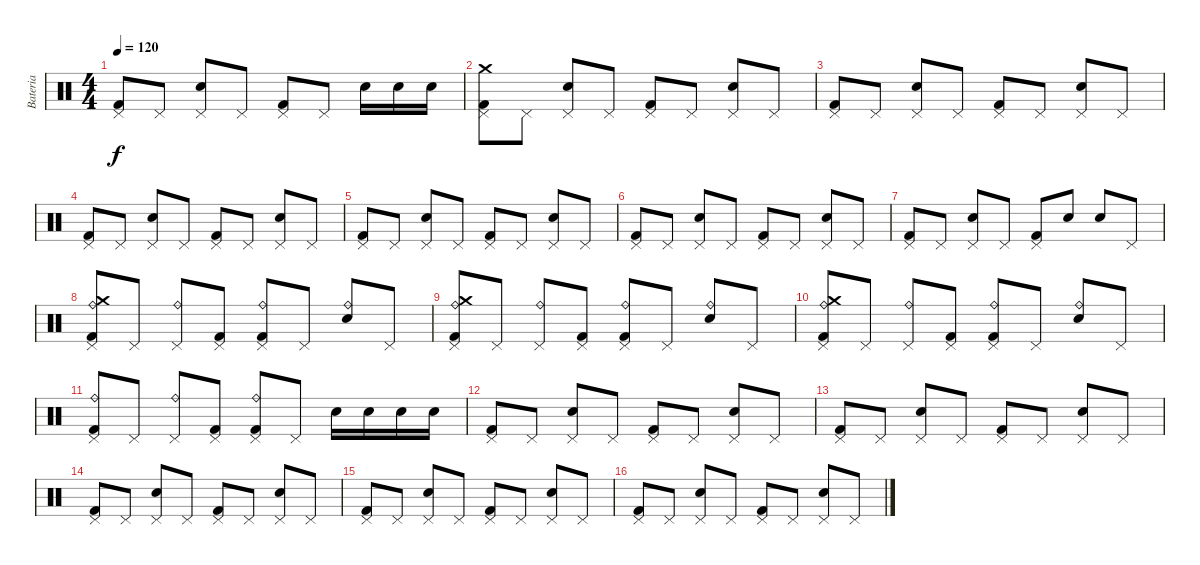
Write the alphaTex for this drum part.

\track ("Bateria" "Bateria") {instrument percussion}
\staff {score}
\articulation defaults
\ts (4 4)
\tempo 120
\clef neutral
\ks c
("Pedal Hi-Hat (hit)" "Kick (hit) 2").8{dy f} "Pedal Hi-Hat (hit)".8 ("Pedal Hi-Hat (hit)" "Electric Snare (hit)").8 "Pedal Hi-Hat (hit)".8 ("Pedal Hi-Hat (hit)" "Kick (hit) 2").8 "Pedal Hi-Hat (hit)".8 "Electric Snare (hit)".16 "Electric Snare (hit)".16 "Electric Snare (hit)".16 |
("Pedal Hi-Hat (hit)" "Kick (hit) 2" "Crash medium (hit)").8 "Pedal Hi-Hat (hit)".8 ("Pedal Hi-Hat (hit)" "Electric Snare (hit)").8 "Pedal Hi-Hat (hit)".8 ("Pedal Hi-Hat (hit)" "Kick (hit) 2").8 "Pedal Hi-Hat (hit)".8 ("Pedal Hi-Hat (hit)" "Electric Snare (hit)").8 "Pedal Hi-Hat (hit)".8 |
("Pedal Hi-Hat (hit)" "Kick (hit) 2").8 "Pedal Hi-Hat (hit)".8 ("Pedal Hi-Hat (hit)" "Electric Snare (hit)").8 "Pedal Hi-Hat (hit)".8 ("Pedal Hi-Hat (hit)" "Kick (hit) 2").8 "Pedal Hi-Hat (hit)".8 ("Pedal Hi-Hat (hit)" "Electric Snare (hit)").8 "Pedal Hi-Hat (hit)".8 |
("Pedal Hi-Hat (hit)" "Kick (hit) 2").8 "Pedal Hi-Hat (hit)".8 ("Pedal Hi-Hat (hit)" "Electric Snare (hit)").8 "Pedal Hi-Hat (hit)".8 ("Pedal Hi-Hat (hit)" "Kick (hit) 2").8 "Pedal Hi-Hat (hit)".8 ("Pedal Hi-Hat (hit)" "Electric Snare (hit)").8 "Pedal Hi-Hat (hit)".8 |
("Pedal Hi-Hat (hit)" "Kick (hit) 2").8 "Pedal Hi-Hat (hit)".8 ("Pedal Hi-Hat (hit)" "Electric Snare (hit)").8 "Pedal Hi-Hat (hit)".8 ("Pedal Hi-Hat (hit)" "Kick (hit) 2").8 "Pedal Hi-Hat (hit)".8 ("Pedal Hi-Hat (hit)" "Electric Snare (hit)").8 "Pedal Hi-Hat (hit)".8 |
("Pedal Hi-Hat (hit)" "Kick (hit) 2").8 "Pedal Hi-Hat (hit)".8 ("Pedal Hi-Hat (hit)" "Electric Snare (hit)").8 "Pedal Hi-Hat (hit)".8 ("Pedal Hi-Hat (hit)" "Kick (hit) 2").8 "Pedal Hi-Hat (hit)".8 ("Pedal Hi-Hat (hit)" "Electric Snare (hit)").8 "Pedal Hi-Hat (hit)".8 |
("Pedal Hi-Hat (hit)" "Kick (hit) 2").8 "Pedal Hi-Hat (hit)".8 ("Pedal Hi-Hat (hit)" "Electric Snare (hit)").8 "Pedal Hi-Hat (hit)".8 ("Pedal Hi-Hat (hit)" "Kick (hit) 2").8 "Electric Snare (hit)".8 "Electric Snare (hit)".8 "Pedal Hi-Hat (hit)".8 |
("Pedal Hi-Hat (hit)" "Kick (hit) 2" "Crash medium (hit)" "Ride (bell)").8 "Pedal Hi-Hat (hit)".8 ("Pedal Hi-Hat (hit)" "Ride (bell)").8 ("Pedal Hi-Hat (hit)" "Kick (hit) 2").8 ("Pedal Hi-Hat (hit)" "Kick (hit) 2" "Ride (bell)").8 "Pedal Hi-Hat (hit)".8 ("Electric Snare (hit)" "Ride (bell)").8 "Pedal Hi-Hat (hit)".8 |
("Pedal Hi-Hat (hit)" "Kick (hit) 2" "Crash medium (hit)" "Ride (bell)").8 "Pedal Hi-Hat (hit)".8 ("Pedal Hi-Hat (hit)" "Ride (bell)").8 ("Pedal Hi-Hat (hit)" "Kick (hit) 2").8 ("Pedal Hi-Hat (hit)" "Kick (hit) 2" "Ride (bell)").8 "Pedal Hi-Hat (hit)".8 ("Electric Snare (hit)" "Ride (bell)").8 "Pedal Hi-Hat (hit)".8 |
("Pedal Hi-Hat (hit)" "Kick (hit) 2" "Crash medium (hit)" "Ride (bell)").8 "Pedal Hi-Hat (hit)".8 ("Pedal Hi-Hat (hit)" "Ride (bell)").8 ("Pedal Hi-Hat (hit)" "Kick (hit) 2").8 ("Pedal Hi-Hat (hit)" "Kick (hit) 2" "Ride (bell)").8 "Pedal Hi-Hat (hit)".8 ("Electric Snare (hit)" "Ride (bell)").8 "Pedal Hi-Hat (hit)".8 |
("Pedal Hi-Hat (hit)" "Kick (hit) 2" "Ride (bell)").8 "Pedal Hi-Hat (hit)".8 ("Pedal Hi-Hat (hit)" "Ride (bell)").8 ("Pedal Hi-Hat (hit)" "Kick (hit) 2").8 ("Pedal Hi-Hat (hit)" "Kick (hit) 2" "Ride (bell)").8 "Pedal Hi-Hat (hit)".8 "Electric Snare (hit)".16 "Electric Snare (hit)".16 "Electric Snare (hit)".16 "Electric Snare (hit)".16 |
("Pedal Hi-Hat (hit)" "Kick (hit) 2").8 "Pedal Hi-Hat (hit)".8 ("Pedal Hi-Hat (hit)" "Electric Snare (hit)").8 "Pedal Hi-Hat (hit)".8 ("Pedal Hi-Hat (hit)" "Kick (hit) 2").8 "Pedal Hi-Hat (hit)".8 ("Pedal Hi-Hat (hit)" "Electric Snare (hit)").8 "Pedal Hi-Hat (hit)".8 |
("Pedal Hi-Hat (hit)" "Kick (hit) 2").8 "Pedal Hi-Hat (hit)".8 ("Pedal Hi-Hat (hit)" "Electric Snare (hit)").8 "Pedal Hi-Hat (hit)".8 ("Pedal Hi-Hat (hit)" "Kick (hit) 2").8 "Pedal Hi-Hat (hit)".8 ("Pedal Hi-Hat (hit)" "Electric Snare (hit)").8 "Pedal Hi-Hat (hit)".8 |
("Pedal Hi-Hat (hit)" "Kick (hit) 2").8 "Pedal Hi-Hat (hit)".8 ("Pedal Hi-Hat (hit)" "Electric Snare (hit)").8 "Pedal Hi-Hat (hit)".8 ("Pedal Hi-Hat (hit)" "Kick (hit) 2").8 "Pedal Hi-Hat (hit)".8 ("Pedal Hi-Hat (hit)" "Electric Snare (hit)").8 "Pedal Hi-Hat (hit)".8 |
("Pedal Hi-Hat (hit)" "Kick (hit) 2").8 "Pedal Hi-Hat (hit)".8 ("Pedal Hi-Hat (hit)" "Electric Snare (hit)").8 "Pedal Hi-Hat (hit)".8 ("Pedal Hi-Hat (hit)" "Kick (hit) 2").8 "Pedal Hi-Hat (hit)".8 ("Pedal Hi-Hat (hit)" "Electric Snare (hit)").8 "Pedal Hi-Hat (hit)".8 |
("Pedal Hi-Hat (hit)" "Kick (hit) 2").8 "Pedal Hi-Hat (hit)".8 ("Pedal Hi-Hat (hit)" "Electric Snare (hit)").8 "Pedal Hi-Hat (hit)".8 ("Pedal Hi-Hat (hit)" "Kick (hit) 2").8 "Pedal Hi-Hat (hit)".8 ("Pedal Hi-Hat (hit)" "Electric Snare (hit)").8 "Pedal Hi-Hat (hit)".8
